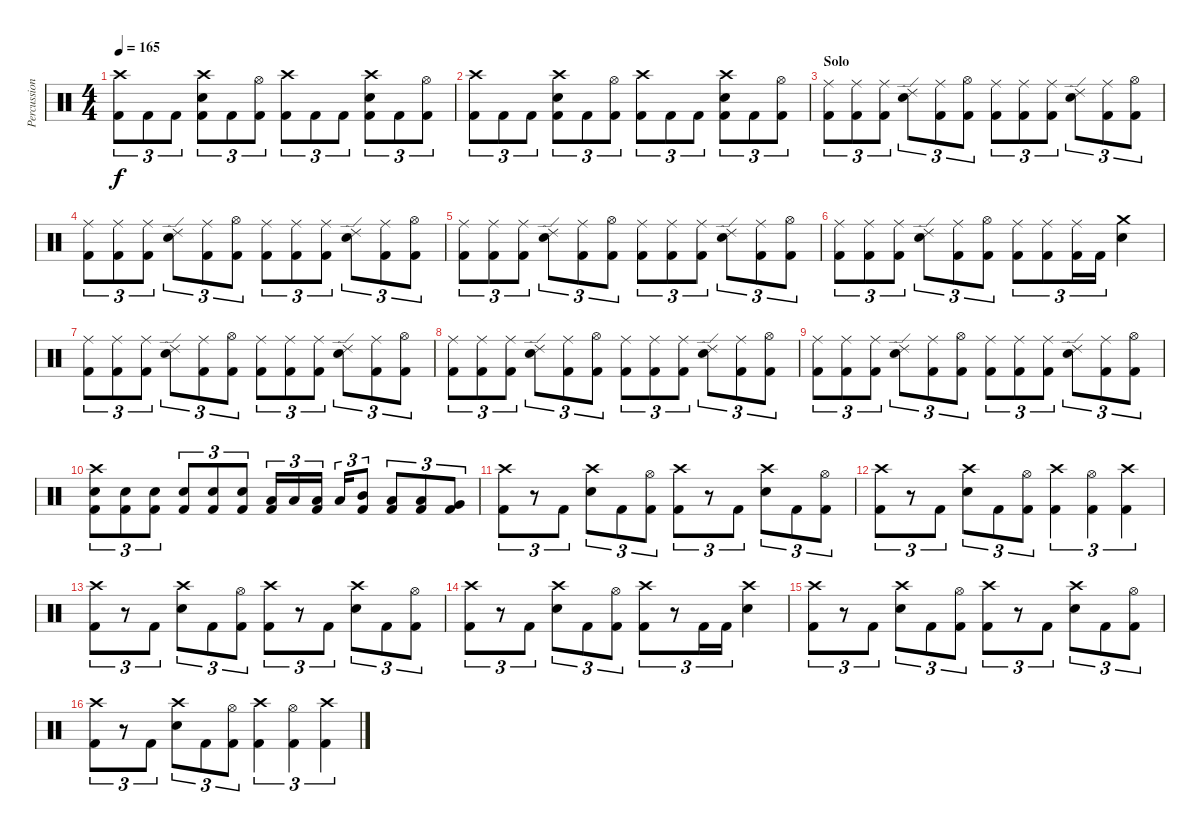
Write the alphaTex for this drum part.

\track ("Percussion" "Percussion") {instrument percussion}
\staff {score}
\articulation defaults
\ts (4 4)
\tempo 165
\clef neutral
\ks c
("Crash high (hit)" "Kick (hit) 2").8{tu (3 2) dy f} "Kick (hit) 2".8{tu (3 2)} "Kick (hit) 2".8{tu (3 2)} ("Crash high (hit)" "Electric Snare (hit)" "Kick (hit) 2").8{tu (3 2)} "Kick (hit) 2".8{tu (3 2)} ("Hi-Hat (open)" "Kick (hit) 2").8{tu (3 2)} ("Crash high (hit)" "Kick (hit) 2").8{tu (3 2)} "Kick (hit) 2".8{tu (3 2)} "Kick (hit) 2".8{tu (3 2)} ("Crash high (hit)" "Electric Snare (hit)" "Kick (hit) 2").8{tu (3 2)} "Kick (hit) 2".8{tu (3 2)} ("Hi-Hat (open)" "Kick (hit) 2").8{tu (3 2)} |
("Crash high (hit)" "Kick (hit) 2").8{tu (3 2)} "Kick (hit) 2".8{tu (3 2)} "Kick (hit) 2".8{tu (3 2)} ("Crash high (hit)" "Electric Snare (hit)" "Kick (hit) 2").8{tu (3 2)} "Kick (hit) 2".8{tu (3 2)} ("Hi-Hat (open)" "Kick (hit) 2").8{tu (3 2)} ("Crash high (hit)" "Kick (hit) 2").8{tu (3 2)} "Kick (hit) 2".8{tu (3 2)} "Kick (hit) 2".8{tu (3 2)} ("Crash high (hit)" "Electric Snare (hit)" "Kick (hit) 2").8{tu (3 2)} "Kick (hit) 2".8{tu (3 2)} ("Hi-Hat (open)" "Kick (hit) 2").8{tu (3 2)} |
\section ("" "Solo")
("Ride (middle)" "Kick (hit) 2").8{tu (3 2)} ("Ride (middle)" "Kick (hit) 2").8{tu (3 2)} ("Ride (middle)" "Kick (hit) 2").8{tu (3 2)} ("Ride (edge) 2" "Electric Snare (hit)").8{tu (3 2)} ("Ride (middle)" "Kick (hit) 2").8{tu (3 2)} ("Hi-Hat (open)" "Kick (hit) 2").8{tu (3 2)} ("Ride (middle)" "Kick (hit) 2").8{tu (3 2)} ("Ride (middle)" "Kick (hit) 2").8{tu (3 2)} ("Ride (middle)" "Kick (hit) 2").8{tu (3 2)} ("Ride (edge) 2" "Electric Snare (hit)").8{tu (3 2)} ("Ride (middle)" "Kick (hit) 2").8{tu (3 2)} ("Hi-Hat (open)" "Kick (hit) 2").8{tu (3 2)} |
("Ride (middle)" "Kick (hit) 2").8{tu (3 2)} ("Ride (middle)" "Kick (hit) 2").8{tu (3 2)} ("Ride (middle)" "Kick (hit) 2").8{tu (3 2)} ("Ride (edge) 2" "Electric Snare (hit)").8{tu (3 2)} ("Ride (middle)" "Kick (hit) 2").8{tu (3 2)} ("Hi-Hat (open)" "Kick (hit) 2").8{tu (3 2)} ("Ride (middle)" "Kick (hit) 2").8{tu (3 2)} ("Ride (middle)" "Kick (hit) 2").8{tu (3 2)} ("Ride (middle)" "Kick (hit) 2").8{tu (3 2)} ("Ride (edge) 2" "Electric Snare (hit)").8{tu (3 2)} ("Ride (middle)" "Kick (hit) 2").8{tu (3 2)} ("Hi-Hat (open)" "Kick (hit) 2").8{tu (3 2)} |
("Ride (middle)" "Kick (hit) 2").8{tu (3 2)} ("Ride (middle)" "Kick (hit) 2").8{tu (3 2)} ("Ride (middle)" "Kick (hit) 2").8{tu (3 2)} ("Ride (edge) 2" "Electric Snare (hit)").8{tu (3 2)} ("Ride (middle)" "Kick (hit) 2").8{tu (3 2)} ("Hi-Hat (open)" "Kick (hit) 2").8{tu (3 2)} ("Ride (middle)" "Kick (hit) 2").8{tu (3 2)} ("Ride (middle)" "Kick (hit) 2").8{tu (3 2)} ("Ride (middle)" "Kick (hit) 2").8{tu (3 2)} ("Ride (edge) 2" "Electric Snare (hit)").8{tu (3 2)} ("Ride (middle)" "Kick (hit) 2").8{tu (3 2)} ("Hi-Hat (open)" "Kick (hit) 2").8{tu (3 2)} |
("Ride (middle)" "Kick (hit) 2").8{tu (3 2)} ("Ride (middle)" "Kick (hit) 2").8{tu (3 2)} ("Ride (middle)" "Kick (hit) 2").8{tu (3 2)} ("Ride (edge) 2" "Electric Snare (hit)").8{tu (3 2)} ("Ride (middle)" "Kick (hit) 2").8{tu (3 2)} ("Hi-Hat (open)" "Kick (hit) 2").8{tu (3 2)} ("Ride (middle)" "Kick (hit) 2").8{tu (3 2)} ("Ride (middle)" "Kick (hit) 2").8{tu (3 2)} ("Ride (middle)" "Kick (hit) 2").16{tu (3 2)} "Kick (hit) 2".16{tu (3 2)} ("Crash medium (hit)" "Electric Snare (hit)").4 |
("Ride (middle)" "Kick (hit) 2").8{tu (3 2)} ("Ride (middle)" "Kick (hit) 2").8{tu (3 2)} ("Ride (middle)" "Kick (hit) 2").8{tu (3 2)} ("Ride (edge) 2" "Electric Snare (hit)").8{tu (3 2)} ("Ride (middle)" "Kick (hit) 2").8{tu (3 2)} ("Hi-Hat (open)" "Kick (hit) 2").8{tu (3 2)} ("Ride (middle)" "Kick (hit) 2").8{tu (3 2)} ("Ride (middle)" "Kick (hit) 2").8{tu (3 2)} ("Ride (middle)" "Kick (hit) 2").8{tu (3 2)} ("Ride (edge) 2" "Electric Snare (hit)").8{tu (3 2)} ("Ride (middle)" "Kick (hit) 2").8{tu (3 2)} ("Hi-Hat (open)" "Kick (hit) 2").8{tu (3 2)} |
("Ride (middle)" "Kick (hit) 2").8{tu (3 2)} ("Ride (middle)" "Kick (hit) 2").8{tu (3 2)} ("Ride (middle)" "Kick (hit) 2").8{tu (3 2)} ("Ride (edge) 2" "Electric Snare (hit)").8{tu (3 2)} ("Ride (middle)" "Kick (hit) 2").8{tu (3 2)} ("Hi-Hat (open)" "Kick (hit) 2").8{tu (3 2)} ("Ride (middle)" "Kick (hit) 2").8{tu (3 2)} ("Ride (middle)" "Kick (hit) 2").8{tu (3 2)} ("Ride (middle)" "Kick (hit) 2").8{tu (3 2)} ("Ride (edge) 2" "Electric Snare (hit)").8{tu (3 2)} ("Ride (middle)" "Kick (hit) 2").8{tu (3 2)} ("Hi-Hat (open)" "Kick (hit) 2").8{tu (3 2)} |
("Ride (middle)" "Kick (hit) 2").8{tu (3 2)} ("Ride (middle)" "Kick (hit) 2").8{tu (3 2)} ("Ride (middle)" "Kick (hit) 2").8{tu (3 2)} ("Ride (edge) 2" "Electric Snare (hit)").8{tu (3 2)} ("Ride (middle)" "Kick (hit) 2").8{tu (3 2)} ("Hi-Hat (open)" "Kick (hit) 2").8{tu (3 2)} ("Ride (middle)" "Kick (hit) 2").8{tu (3 2)} ("Ride (middle)" "Kick (hit) 2").8{tu (3 2)} ("Ride (middle)" "Kick (hit) 2").8{tu (3 2)} ("Ride (edge) 2" "Electric Snare (hit)").8{tu (3 2)} ("Ride (middle)" "Kick (hit) 2").8{tu (3 2)} ("Hi-Hat (open)" "Kick (hit) 2").8{tu (3 2)} |
("Crash high (hit)" "Electric Snare (hit)" "Kick (hit) 2").8{tu (3 2)} ("Electric Snare (hit)" "Kick (hit) 2").8{tu (3 2)} ("Electric Snare (hit)" "Kick (hit) 2").8{tu (3 2)} ("Electric Snare (hit)" "Kick (hit) 2").8{tu (3 2)} ("Electric Snare (hit)" "Kick (hit) 2").8{tu (3 2)} ("Electric Snare (hit)" "Kick (hit) 2").8{tu (3 2)} ("Low Tom (hit)" "Kick (hit) 2").16{tu (3 2)} "Low Tom (hit)".16{tu (3 2)} ("Low Tom (hit)" "Kick (hit) 2").16{tu (3 2)} "Low Tom (hit)".16{tu (3 2)} ("Mid Tom (hit)" "Kick (hit) 2").8{tu (3 2)} ("Low Tom (hit)" "Kick (hit) 2").8{tu (3 2)} ("Low Tom (hit)" "Kick (hit) 2").8{tu (3 2)} ("Very Low Tom (hit)" "Kick (hit) 2").8{tu (3 2)} |
("Crash high (hit)" "Kick (hit) 2").8{tu (3 2)} r.8{tu (3 2)} "Kick (hit) 2".8{tu (3 2)} ("Crash high (hit)" "Electric Snare (hit)").8{tu (3 2)} "Kick (hit) 2".8{tu (3 2)} ("Hi-Hat (open)" "Kick (hit) 2").8{tu (3 2)} ("Crash high (hit)" "Kick (hit) 2").8{tu (3 2)} r.8{tu (3 2)} "Kick (hit) 2".8{tu (3 2)} ("Crash high (hit)" "Electric Snare (hit)").8{tu (3 2)} "Kick (hit) 2".8{tu (3 2)} ("Hi-Hat (open)" "Kick (hit) 2").8{tu (3 2)} |
("Crash high (hit)" "Kick (hit) 2").8{tu (3 2)} r.8{tu (3 2)} "Kick (hit) 2".8{tu (3 2)} ("Crash high (hit)" "Electric Snare (hit)").8{tu (3 2)} "Kick (hit) 2".8{tu (3 2)} ("Hi-Hat (open)" "Kick (hit) 2").8{tu (3 2)} ("Crash high (hit)" "Kick (hit) 2").4{tu (3 2)} ("Hi-Hat (open)" "Kick (hit) 2").4{tu (3 2)} ("Crash high (hit)" "Kick (hit) 2").4{tu (3 2)} |
("Crash high (hit)" "Kick (hit) 2").8{tu (3 2)} r.8{tu (3 2)} "Kick (hit) 2".8{tu (3 2)} ("Crash high (hit)" "Electric Snare (hit)").8{tu (3 2)} "Kick (hit) 2".8{tu (3 2)} ("Hi-Hat (open)" "Kick (hit) 2").8{tu (3 2)} ("Crash high (hit)" "Kick (hit) 2").8{tu (3 2)} r.8{tu (3 2)} "Kick (hit) 2".8{tu (3 2)} ("Crash high (hit)" "Electric Snare (hit)").8{tu (3 2)} "Kick (hit) 2".8{tu (3 2)} ("Hi-Hat (open)" "Kick (hit) 2").8{tu (3 2)} |
("Crash high (hit)" "Kick (hit) 2").8{tu (3 2)} r.8{tu (3 2)} "Kick (hit) 2".8{tu (3 2)} ("Crash high (hit)" "Electric Snare (hit)").8{tu (3 2)} "Kick (hit) 2".8{tu (3 2)} ("Hi-Hat (open)" "Kick (hit) 2").8{tu (3 2)} ("Crash high (hit)" "Kick (hit) 2").8{tu (3 2)} r.8{tu (3 2)} "Kick (hit) 2".16{tu (3 2)} "Kick (hit) 2".16{tu (3 2)} ("Crash high (hit)" "Electric Snare (hit)").4 |
("Crash high (hit)" "Kick (hit) 2").8{tu (3 2)} r.8{tu (3 2)} "Kick (hit) 2".8{tu (3 2)} ("Crash high (hit)" "Electric Snare (hit)").8{tu (3 2)} "Kick (hit) 2".8{tu (3 2)} ("Hi-Hat (open)" "Kick (hit) 2").8{tu (3 2)} ("Crash high (hit)" "Kick (hit) 2").8{tu (3 2)} r.8{tu (3 2)} "Kick (hit) 2".8{tu (3 2)} ("Crash high (hit)" "Electric Snare (hit)").8{tu (3 2)} "Kick (hit) 2".8{tu (3 2)} ("Hi-Hat (open)" "Kick (hit) 2").8{tu (3 2)} |
("Crash high (hit)" "Kick (hit) 2").8{tu (3 2)} r.8{tu (3 2)} "Kick (hit) 2".8{tu (3 2)} ("Crash high (hit)" "Electric Snare (hit)").8{tu (3 2)} "Kick (hit) 2".8{tu (3 2)} ("Hi-Hat (open)" "Kick (hit) 2").8{tu (3 2)} ("Crash high (hit)" "Kick (hit) 2").4{tu (3 2)} ("Hi-Hat (open)" "Kick (hit) 2").4{tu (3 2)} ("Crash high (hit)" "Kick (hit) 2").4{tu (3 2)}
